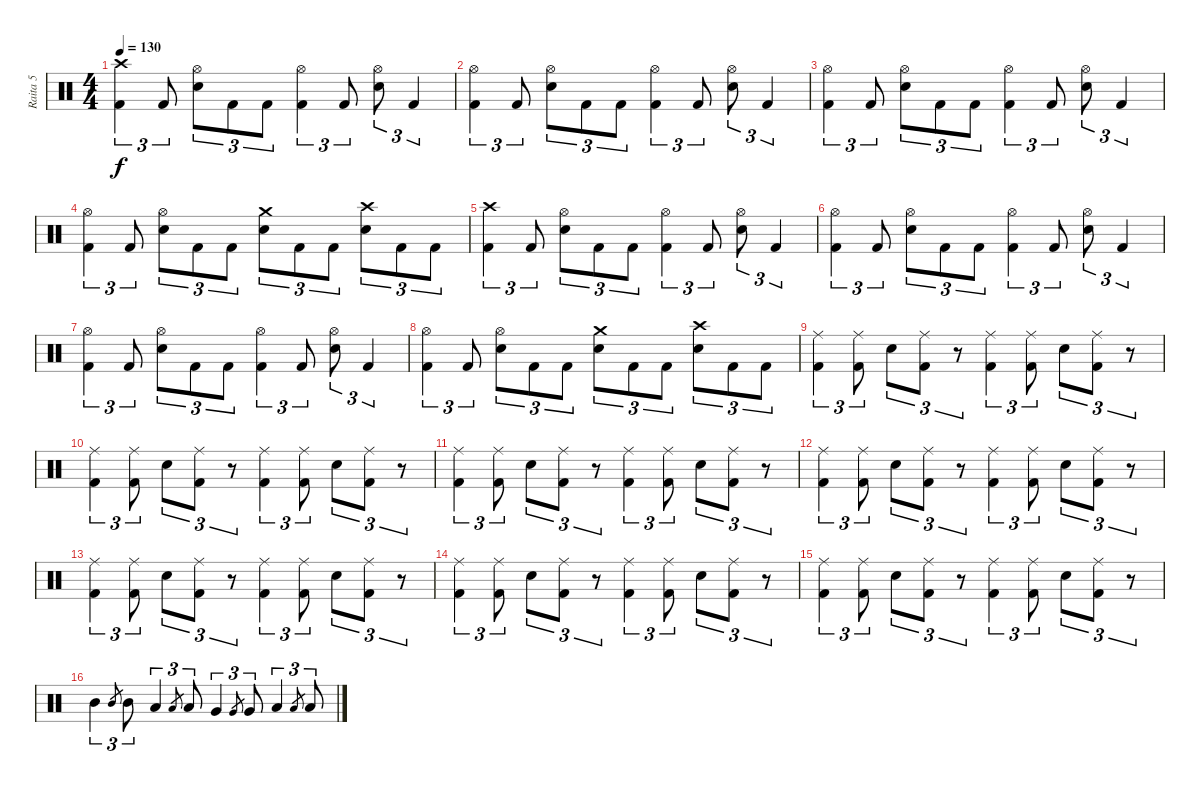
\track ("Raita 5" "Raita 5") {instrument percussion}
\staff {score}
\articulation defaults
\ts (4 4)
\tempo 130
\clef neutral
\ks c
("Crash high (hit)" "Kick (hit) 2").4{tu (3 2) dy f} "Kick (hit) 2".8{tu (3 2)} ("Hi-Hat (open)" "Snare (hit) 2").8{tu (3 2)} "Kick (hit) 2".8{tu (3 2)} "Kick (hit) 2".8{tu (3 2)} ("Hi-Hat (open)" "Kick (hit) 2").4{tu (3 2)} "Kick (hit) 2".8{tu (3 2)} ("Hi-Hat (open)" "Snare (hit) 2").8{tu (3 2)} "Kick (hit) 2".4{tu (3 2)} |
("Hi-Hat (open)" "Kick (hit) 2").4{tu (3 2)} "Kick (hit) 2".8{tu (3 2)} ("Hi-Hat (open)" "Snare (hit) 2").8{tu (3 2)} "Kick (hit) 2".8{tu (3 2)} "Kick (hit) 2".8{tu (3 2)} ("Hi-Hat (open)" "Kick (hit) 2").4{tu (3 2)} "Kick (hit) 2".8{tu (3 2)} ("Hi-Hat (open)" "Snare (hit) 2").8{tu (3 2)} "Kick (hit) 2".4{tu (3 2)} |
("Hi-Hat (open)" "Kick (hit) 2").4{tu (3 2)} "Kick (hit) 2".8{tu (3 2)} ("Hi-Hat (open)" "Snare (hit) 2").8{tu (3 2)} "Kick (hit) 2".8{tu (3 2)} "Kick (hit) 2".8{tu (3 2)} ("Hi-Hat (open)" "Kick (hit) 2").4{tu (3 2)} "Kick (hit) 2".8{tu (3 2)} ("Hi-Hat (open)" "Snare (hit) 2").8{tu (3 2)} "Kick (hit) 2".4{tu (3 2)} |
("Hi-Hat (open)" "Kick (hit) 2").4{tu (3 2)} "Kick (hit) 2".8{tu (3 2)} ("Hi-Hat (open)" "Snare (hit) 2").8{tu (3 2)} "Kick (hit) 2".8{tu (3 2)} "Kick (hit) 2".8{tu (3 2)} ("Crash medium (hit)" "Snare (hit) 2").8{tu (3 2)} "Kick (hit) 2".8{tu (3 2)} "Kick (hit) 2".8{tu (3 2)} ("Crash high (hit)" "Snare (hit) 2").8{tu (3 2)} "Kick (hit) 2".8{tu (3 2)} "Kick (hit) 2".8{tu (3 2)} |
("Crash high (hit)" "Kick (hit) 2").4{tu (3 2)} "Kick (hit) 2".8{tu (3 2)} ("Hi-Hat (open)" "Snare (hit) 2").8{tu (3 2)} "Kick (hit) 2".8{tu (3 2)} "Kick (hit) 2".8{tu (3 2)} ("Hi-Hat (open)" "Kick (hit) 2").4{tu (3 2)} "Kick (hit) 2".8{tu (3 2)} ("Hi-Hat (open)" "Snare (hit) 2").8{tu (3 2)} "Kick (hit) 2".4{tu (3 2)} |
("Hi-Hat (open)" "Kick (hit) 2").4{tu (3 2)} "Kick (hit) 2".8{tu (3 2)} ("Hi-Hat (open)" "Snare (hit) 2").8{tu (3 2)} "Kick (hit) 2".8{tu (3 2)} "Kick (hit) 2".8{tu (3 2)} ("Hi-Hat (open)" "Kick (hit) 2").4{tu (3 2)} "Kick (hit) 2".8{tu (3 2)} ("Hi-Hat (open)" "Snare (hit) 2").8{tu (3 2)} "Kick (hit) 2".4{tu (3 2)} |
("Hi-Hat (open)" "Kick (hit) 2").4{tu (3 2)} "Kick (hit) 2".8{tu (3 2)} ("Hi-Hat (open)" "Snare (hit) 2").8{tu (3 2)} "Kick (hit) 2".8{tu (3 2)} "Kick (hit) 2".8{tu (3 2)} ("Hi-Hat (open)" "Kick (hit) 2").4{tu (3 2)} "Kick (hit) 2".8{tu (3 2)} ("Hi-Hat (open)" "Snare (hit) 2").8{tu (3 2)} "Kick (hit) 2".4{tu (3 2)} |
("Hi-Hat (open)" "Kick (hit) 2").4{tu (3 2)} "Kick (hit) 2".8{tu (3 2)} ("Hi-Hat (open)" "Snare (hit) 2").8{tu (3 2)} "Kick (hit) 2".8{tu (3 2)} "Kick (hit) 2".8{tu (3 2)} ("Crash medium (hit)" "Snare (hit) 2").8{tu (3 2)} "Kick (hit) 2".8{tu (3 2)} "Kick (hit) 2".8{tu (3 2)} ("Crash high (hit)" "Snare (hit) 2").8{tu (3 2)} "Kick (hit) 2".8{tu (3 2)} "Kick (hit) 2".8{tu (3 2)} |
("Ride (middle)" "Kick (hit) 2").4{tu (3 2)} ("Ride (middle)" "Kick (hit) 2").8{tu (3 2)} "Snare (hit) 2".8{tu (3 2)} ("Ride (middle)" "Kick (hit) 2").8{tu (3 2)} r.8{tu (3 2)} ("Ride (middle)" "Kick (hit) 2").4{tu (3 2)} ("Ride (middle)" "Kick (hit) 2").8{tu (3 2)} "Snare (hit) 2".8{tu (3 2)} ("Ride (middle)" "Kick (hit) 2").8{tu (3 2)} r.8{tu (3 2)} |
("Ride (middle)" "Kick (hit) 2").4{tu (3 2)} ("Ride (middle)" "Kick (hit) 2").8{tu (3 2)} "Snare (hit) 2".8{tu (3 2)} ("Ride (middle)" "Kick (hit) 2").8{tu (3 2)} r.8{tu (3 2)} ("Ride (middle)" "Kick (hit) 2").4{tu (3 2)} ("Ride (middle)" "Kick (hit) 2").8{tu (3 2)} "Snare (hit) 2".8{tu (3 2)} ("Ride (middle)" "Kick (hit) 2").8{tu (3 2)} r.8{tu (3 2)} |
("Ride (middle)" "Kick (hit) 2").4{tu (3 2)} ("Ride (middle)" "Kick (hit) 2").8{tu (3 2)} "Snare (hit) 2".8{tu (3 2)} ("Ride (middle)" "Kick (hit) 2").8{tu (3 2)} r.8{tu (3 2)} ("Ride (middle)" "Kick (hit) 2").4{tu (3 2)} ("Ride (middle)" "Kick (hit) 2").8{tu (3 2)} "Snare (hit) 2".8{tu (3 2)} ("Ride (middle)" "Kick (hit) 2").8{tu (3 2)} r.8{tu (3 2)} |
("Ride (middle)" "Kick (hit) 2").4{tu (3 2)} ("Ride (middle)" "Kick (hit) 2").8{tu (3 2)} "Snare (hit) 2".8{tu (3 2)} ("Ride (middle)" "Kick (hit) 2").8{tu (3 2)} r.8{tu (3 2)} ("Ride (middle)" "Kick (hit) 2").4{tu (3 2)} ("Ride (middle)" "Kick (hit) 2").8{tu (3 2)} "Snare (hit) 2".8{tu (3 2)} ("Ride (middle)" "Kick (hit) 2").8{tu (3 2)} r.8{tu (3 2)} |
("Ride (middle)" "Kick (hit) 2").4{tu (3 2)} ("Ride (middle)" "Kick (hit) 2").8{tu (3 2)} "Snare (hit) 2".8{tu (3 2)} ("Ride (middle)" "Kick (hit) 2").8{tu (3 2)} r.8{tu (3 2)} ("Ride (middle)" "Kick (hit) 2").4{tu (3 2)} ("Ride (middle)" "Kick (hit) 2").8{tu (3 2)} "Snare (hit) 2".8{tu (3 2)} ("Ride (middle)" "Kick (hit) 2").8{tu (3 2)} r.8{tu (3 2)} |
("Ride (middle)" "Kick (hit) 2").4{tu (3 2)} ("Ride (middle)" "Kick (hit) 2").8{tu (3 2)} "Snare (hit) 2".8{tu (3 2)} ("Ride (middle)" "Kick (hit) 2").8{tu (3 2)} r.8{tu (3 2)} ("Ride (middle)" "Kick (hit) 2").4{tu (3 2)} ("Ride (middle)" "Kick (hit) 2").8{tu (3 2)} "Snare (hit) 2".8{tu (3 2)} ("Ride (middle)" "Kick (hit) 2").8{tu (3 2)} r.8{tu (3 2)} |
("Ride (middle)" "Kick (hit) 2").4{tu (3 2)} ("Ride (middle)" "Kick (hit) 2").8{tu (3 2)} "Snare (hit) 2".8{tu (3 2)} ("Ride (middle)" "Kick (hit) 2").8{tu (3 2)} r.8{tu (3 2)} ("Ride (middle)" "Kick (hit) 2").4{tu (3 2)} ("Ride (middle)" "Kick (hit) 2").8{tu (3 2)} "Snare (hit) 2".8{tu (3 2)} ("Ride (middle)" "Kick (hit) 2").8{tu (3 2)} r.8{tu (3 2)} |
"Mid Tom (hit)".4{tu (3 2)} "Mid Tom (hit)".8{gr} "Mid Tom (hit)".8{tu (3 2)} "Low Tom (hit)".4{tu (3 2)} "Low Tom (hit)".8{gr} "Low Tom (hit)".8{tu (3 2)} "Very Low Tom (hit)".4{tu (3 2)} "Very Low Tom (hit)".8{gr} "Very Low Tom (hit)".8{tu (3 2)} "Low Floor Tom (hit)".4{tu (3 2)} "Low Floor Tom (hit)".8{gr} "Low Floor Tom (hit)".8{tu (3 2)}
